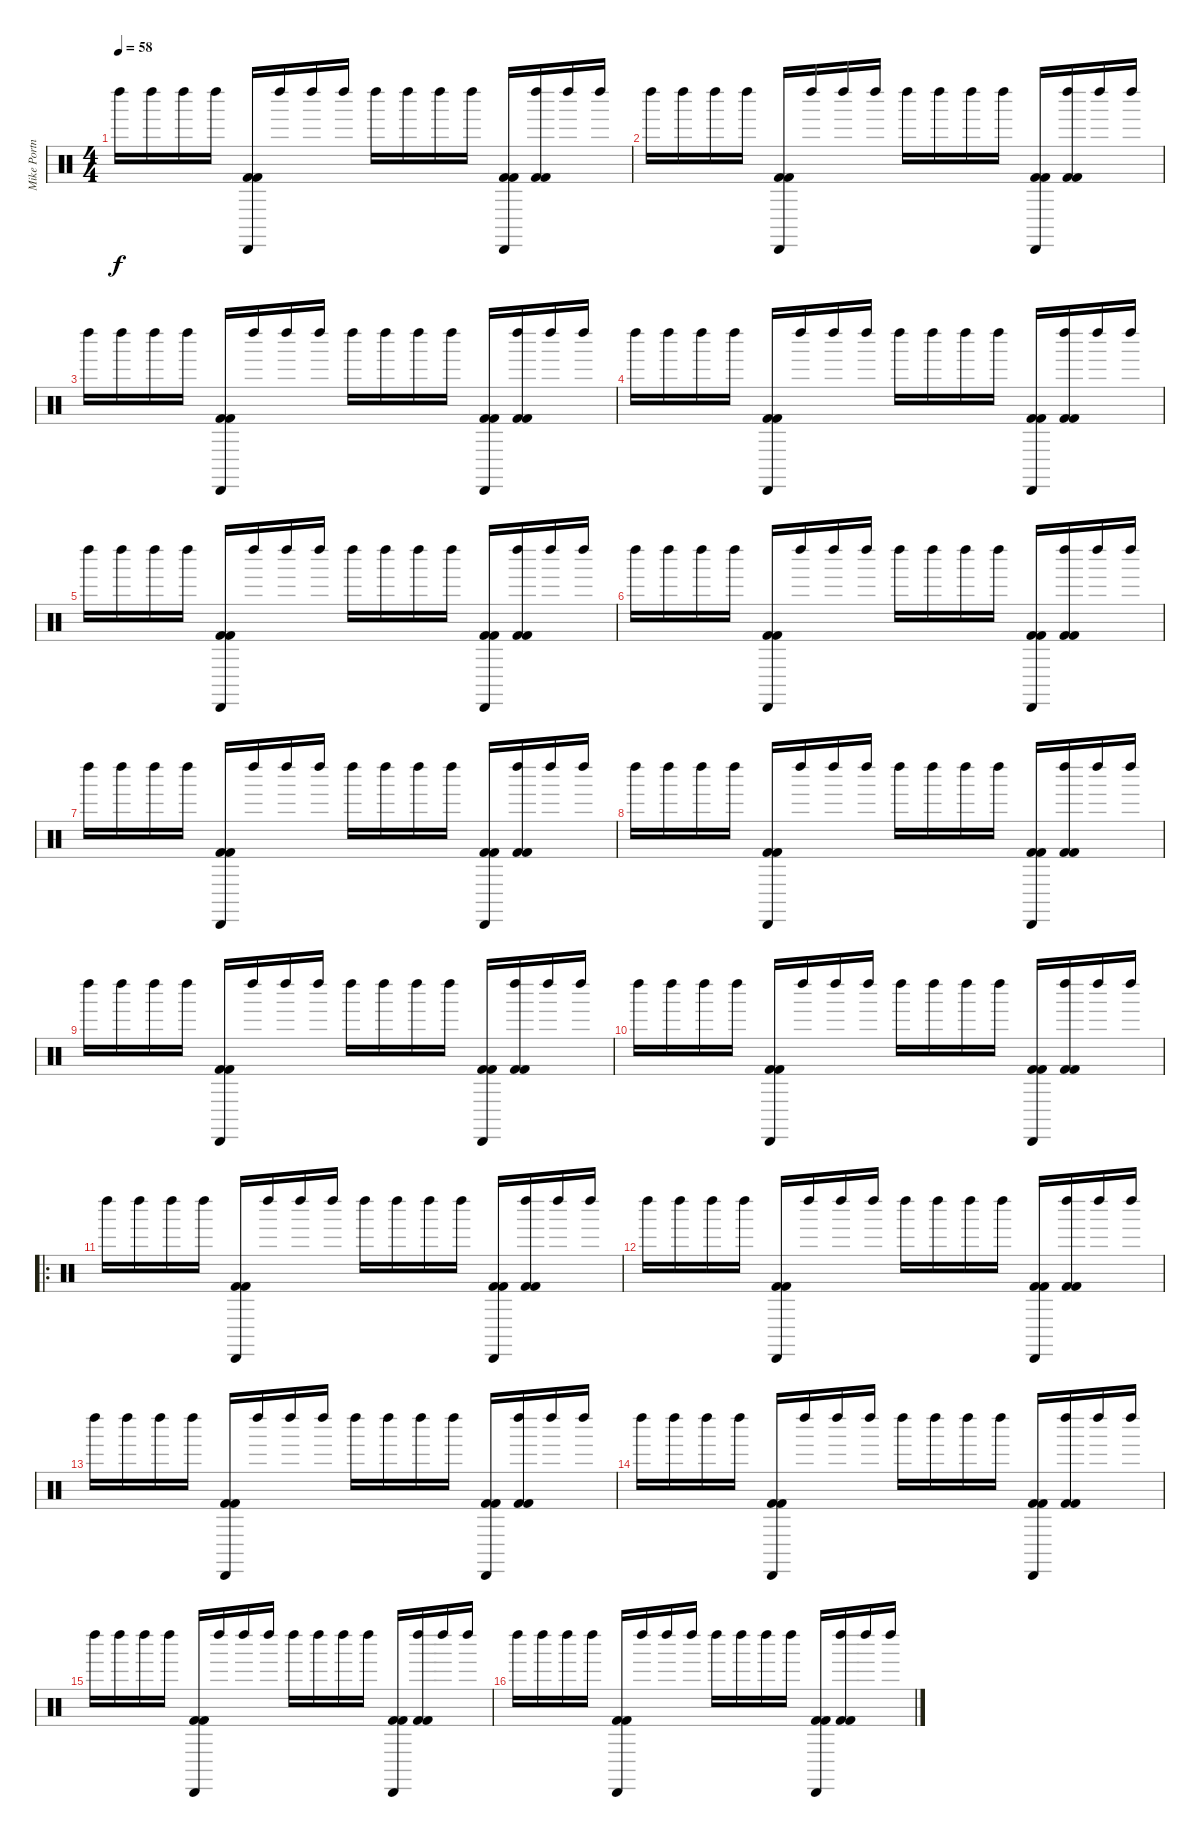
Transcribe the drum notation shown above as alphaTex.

\track ("Mike Portnoy - Drum" "Mike Portn") {instrument percussion}
\staff {score}
\articulation defaults
\ts (4 4)
\tempo 58
\clef neutral
\ks c "Left Maraca (hit)".16{dy f} "Left Maraca (hit)".16 "Left Maraca (hit)".16 "Left Maraca (hit)".16
("Cabasa (hit)" "Kick (hit) 2" "Kick (hit) 2").16 "Left Maraca (hit)".16 "Left Maraca (hit)".16 "Left Maraca (hit)".16 "Left Maraca (hit)".16 "Left Maraca (hit)".16 "Left Maraca (hit)".16 "Left Maraca (hit)".16 ("Cabasa (hit)" "Kick (hit) 2" "Kick (hit) 2").16 ("Left Maraca (hit)" "Kick (hit) 2" "Kick (hit) 2").16 "Left Maraca (hit)".16 "Left Maraca (hit)".16 |
"Left Maraca (hit)".16 "Left Maraca (hit)".16 "Left Maraca (hit)".16 "Left Maraca (hit)".16 ("Cabasa (hit)" "Kick (hit) 2" "Kick (hit) 2").16 "Left Maraca (hit)".16 "Left Maraca (hit)".16 "Left Maraca (hit)".16 "Left Maraca (hit)".16 "Left Maraca (hit)".16 "Left Maraca (hit)".16 "Left Maraca (hit)".16 ("Cabasa (hit)" "Kick (hit) 2" "Kick (hit) 2").16 ("Left Maraca (hit)" "Kick (hit) 2" "Kick (hit) 2").16 "Left Maraca (hit)".16 "Left Maraca (hit)".16 |
"Left Maraca (hit)".16 "Left Maraca (hit)".16 "Left Maraca (hit)".16 "Left Maraca (hit)".16 ("Cabasa (hit)" "Kick (hit) 2" "Kick (hit) 2").16 "Left Maraca (hit)".16 "Left Maraca (hit)".16 "Left Maraca (hit)".16 "Left Maraca (hit)".16 "Left Maraca (hit)".16 "Left Maraca (hit)".16 "Left Maraca (hit)".16 ("Cabasa (hit)" "Kick (hit) 2" "Kick (hit) 2").16 ("Left Maraca (hit)" "Kick (hit) 2" "Kick (hit) 2").16 "Left Maraca (hit)".16 "Left Maraca (hit)".16 |
"Left Maraca (hit)".16 "Left Maraca (hit)".16 "Left Maraca (hit)".16 "Left Maraca (hit)".16 ("Cabasa (hit)" "Kick (hit) 2" "Kick (hit) 2").16 "Left Maraca (hit)".16 "Left Maraca (hit)".16 "Left Maraca (hit)".16 "Left Maraca (hit)".16 "Left Maraca (hit)".16 "Left Maraca (hit)".16 "Left Maraca (hit)".16 ("Cabasa (hit)" "Kick (hit) 2" "Kick (hit) 2").16 ("Left Maraca (hit)" "Kick (hit) 2" "Kick (hit) 2").16 "Left Maraca (hit)".16 "Left Maraca (hit)".16 |
"Left Maraca (hit)".16 "Left Maraca (hit)".16 "Left Maraca (hit)".16 "Left Maraca (hit)".16 ("Cabasa (hit)" "Kick (hit) 2" "Kick (hit) 2").16 "Left Maraca (hit)".16 "Left Maraca (hit)".16 "Left Maraca (hit)".16 "Left Maraca (hit)".16 "Left Maraca (hit)".16 "Left Maraca (hit)".16 "Left Maraca (hit)".16 ("Cabasa (hit)" "Kick (hit) 2" "Kick (hit) 2").16 ("Left Maraca (hit)" "Kick (hit) 2" "Kick (hit) 2").16 "Left Maraca (hit)".16 "Left Maraca (hit)".16 |
"Left Maraca (hit)".16 "Left Maraca (hit)".16 "Left Maraca (hit)".16 "Left Maraca (hit)".16 ("Cabasa (hit)" "Kick (hit) 2" "Kick (hit) 2").16 "Left Maraca (hit)".16 "Left Maraca (hit)".16 "Left Maraca (hit)".16 "Left Maraca (hit)".16 "Left Maraca (hit)".16 "Left Maraca (hit)".16 "Left Maraca (hit)".16 ("Cabasa (hit)" "Kick (hit) 2" "Kick (hit) 2").16 ("Left Maraca (hit)" "Kick (hit) 2" "Kick (hit) 2").16 "Left Maraca (hit)".16 "Left Maraca (hit)".16 |
"Left Maraca (hit)".16 "Left Maraca (hit)".16 "Left Maraca (hit)".16 "Left Maraca (hit)".16 ("Cabasa (hit)" "Kick (hit) 2" "Kick (hit) 2").16 "Left Maraca (hit)".16 "Left Maraca (hit)".16 "Left Maraca (hit)".16 "Left Maraca (hit)".16 "Left Maraca (hit)".16 "Left Maraca (hit)".16 "Left Maraca (hit)".16 ("Cabasa (hit)" "Kick (hit) 2" "Kick (hit) 2").16 ("Left Maraca (hit)" "Kick (hit) 2" "Kick (hit) 2").16 "Left Maraca (hit)".16 "Left Maraca (hit)".16 |
"Left Maraca (hit)".16 "Left Maraca (hit)".16 "Left Maraca (hit)".16 "Left Maraca (hit)".16 ("Cabasa (hit)" "Kick (hit) 2" "Kick (hit) 2").16 "Left Maraca (hit)".16 "Left Maraca (hit)".16 "Left Maraca (hit)".16 "Left Maraca (hit)".16 "Left Maraca (hit)".16 "Left Maraca (hit)".16 "Left Maraca (hit)".16 ("Cabasa (hit)" "Kick (hit) 2" "Kick (hit) 2").16 ("Left Maraca (hit)" "Kick (hit) 2" "Kick (hit) 2").16 "Left Maraca (hit)".16 "Left Maraca (hit)".16 |
"Left Maraca (hit)".16 "Left Maraca (hit)".16 "Left Maraca (hit)".16 "Left Maraca (hit)".16 ("Cabasa (hit)" "Kick (hit) 2" "Kick (hit) 2").16 "Left Maraca (hit)".16 "Left Maraca (hit)".16 "Left Maraca (hit)".16 "Left Maraca (hit)".16 "Left Maraca (hit)".16 "Left Maraca (hit)".16 "Left Maraca (hit)".16 ("Cabasa (hit)" "Kick (hit) 2" "Kick (hit) 2").16 ("Left Maraca (hit)" "Kick (hit) 2" "Kick (hit) 2").16 "Left Maraca (hit)".16 "Left Maraca (hit)".16 |
"Left Maraca (hit)".16 "Left Maraca (hit)".16 "Left Maraca (hit)".16 "Left Maraca (hit)".16 ("Cabasa (hit)" "Kick (hit) 2" "Kick (hit) 2").16 "Left Maraca (hit)".16 "Left Maraca (hit)".16 "Left Maraca (hit)".16 "Left Maraca (hit)".16 "Left Maraca (hit)".16 "Left Maraca (hit)".16 "Left Maraca (hit)".16 ("Cabasa (hit)" "Kick (hit) 2" "Kick (hit) 2").16 ("Left Maraca (hit)" "Kick (hit) 2" "Kick (hit) 2").16 "Left Maraca (hit)".16 "Left Maraca (hit)".16 |
\ro "Left Maraca (hit)".16 "Left Maraca (hit)".16 "Left Maraca (hit)".16 "Left Maraca (hit)".16
("Cabasa (hit)" "Kick (hit) 2" "Kick (hit) 2").16 "Left Maraca (hit)".16 "Left Maraca (hit)".16 "Left Maraca (hit)".16 "Left Maraca (hit)".16 "Left Maraca (hit)".16 "Left Maraca (hit)".16 "Left Maraca (hit)".16 ("Cabasa (hit)" "Kick (hit) 2" "Kick (hit) 2").16 ("Left Maraca (hit)" "Kick (hit) 2" "Kick (hit) 2").16 "Left Maraca (hit)".16 "Left Maraca (hit)".16 |
"Left Maraca (hit)".16 "Left Maraca (hit)".16 "Left Maraca (hit)".16 "Left Maraca (hit)".16 ("Cabasa (hit)" "Kick (hit) 2" "Kick (hit) 2").16 "Left Maraca (hit)".16 "Left Maraca (hit)".16 "Left Maraca (hit)".16 "Left Maraca (hit)".16 "Left Maraca (hit)".16 "Left Maraca (hit)".16 "Left Maraca (hit)".16 ("Cabasa (hit)" "Kick (hit) 2" "Kick (hit) 2").16 ("Left Maraca (hit)" "Kick (hit) 2" "Kick (hit) 2").16 "Left Maraca (hit)".16 "Left Maraca (hit)".16 |
"Left Maraca (hit)".16 "Left Maraca (hit)".16 "Left Maraca (hit)".16 "Left Maraca (hit)".16 ("Cabasa (hit)" "Kick (hit) 2" "Kick (hit) 2").16 "Left Maraca (hit)".16 "Left Maraca (hit)".16 "Left Maraca (hit)".16 "Left Maraca (hit)".16 "Left Maraca (hit)".16 "Left Maraca (hit)".16 "Left Maraca (hit)".16 ("Cabasa (hit)" "Kick (hit) 2" "Kick (hit) 2").16 ("Left Maraca (hit)" "Kick (hit) 2" "Kick (hit) 2").16 "Left Maraca (hit)".16 "Left Maraca (hit)".16 |
"Left Maraca (hit)".16 "Left Maraca (hit)".16 "Left Maraca (hit)".16 "Left Maraca (hit)".16 ("Cabasa (hit)" "Kick (hit) 2" "Kick (hit) 2").16 "Left Maraca (hit)".16 "Left Maraca (hit)".16 "Left Maraca (hit)".16 "Left Maraca (hit)".16 "Left Maraca (hit)".16 "Left Maraca (hit)".16 "Left Maraca (hit)".16 ("Cabasa (hit)" "Kick (hit) 2" "Kick (hit) 2").16 ("Left Maraca (hit)" "Kick (hit) 2" "Kick (hit) 2").16 "Left Maraca (hit)".16 "Left Maraca (hit)".16 |
"Left Maraca (hit)".16 "Left Maraca (hit)".16 "Left Maraca (hit)".16 "Left Maraca (hit)".16 ("Cabasa (hit)" "Kick (hit) 2" "Kick (hit) 2").16 "Left Maraca (hit)".16 "Left Maraca (hit)".16 "Left Maraca (hit)".16 "Left Maraca (hit)".16 "Left Maraca (hit)".16 "Left Maraca (hit)".16 "Left Maraca (hit)".16 ("Cabasa (hit)" "Kick (hit) 2" "Kick (hit) 2").16 ("Left Maraca (hit)" "Kick (hit) 2" "Kick (hit) 2").16 "Left Maraca (hit)".16 "Left Maraca (hit)".16 |
"Left Maraca (hit)".16 "Left Maraca (hit)".16 "Left Maraca (hit)".16 "Left Maraca (hit)".16 ("Cabasa (hit)" "Kick (hit) 2" "Kick (hit) 2").16 "Left Maraca (hit)".16 "Left Maraca (hit)".16 "Left Maraca (hit)".16 "Left Maraca (hit)".16 "Left Maraca (hit)".16 "Left Maraca (hit)".16 "Left Maraca (hit)".16 ("Cabasa (hit)" "Kick (hit) 2" "Kick (hit) 2").16 ("Left Maraca (hit)" "Kick (hit) 2" "Kick (hit) 2").16 "Left Maraca (hit)".16 "Left Maraca (hit)".16
